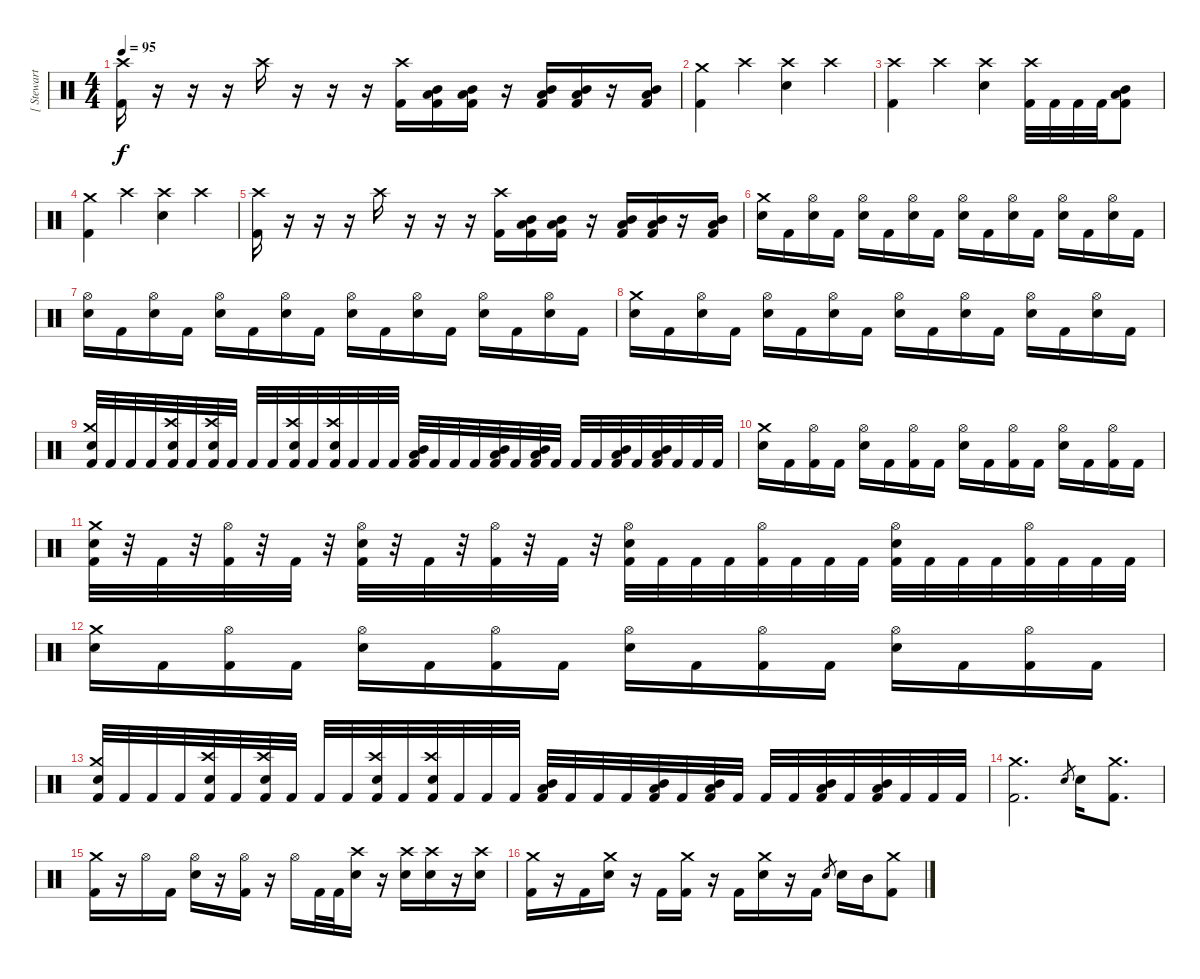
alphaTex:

\track ("[ Stewart ] " "[ Stewart ") {instrument percussion}
\staff {score}
\articulation defaults
\ts (4 4)
\tempo 95
\clef neutral
\ks c
("Kick (hit) 2" "Crash high (hit)").16{dy f} r.16 r.16 r.16 "Crash high (hit)".16 r.16 r.16 r.16 ("Kick (hit) 2" "Crash high (hit)").16 ("Kick (hit) 2" "Mid Tom (hit)" "Low Tom (hit)").16 ("Kick (hit) 2" "Mid Tom (hit)" "Low Tom (hit)").16 r.16 ("Kick (hit) 2" "Mid Tom (hit)" "Low Tom (hit)").16 ("Kick (hit) 2" "Mid Tom (hit)" "Low Tom (hit)").16 r.16 ("Kick (hit) 2" "Mid Tom (hit)" "Low Tom (hit)").16 |
("Kick (hit) 2" "Crash medium (hit)").4 "Crash high (hit)".4 ("Electric Snare (hit)" "Crash high (hit)").4 "Crash high (hit)".4 |
("Kick (hit) 2" "Crash high (hit)").4 "Crash high (hit)".4 ("Electric Snare (hit)" "Crash high (hit)").4 ("Kick (hit) 2" "Crash high (hit)").32 "Kick (hit) 2".32 "Kick (hit) 2".32 "Kick (hit) 2".32 ("Low Tom (hit)" "Mid Tom (hit)" "Kick (hit) 2").8 |
("Kick (hit) 2" "Crash medium (hit)").4 "Crash high (hit)".4 ("Electric Snare (hit)" "Crash high (hit)").4 "Crash high (hit)".4 |
("Kick (hit) 2" "Crash high (hit)").16 r.16 r.16 r.16 "Crash high (hit)".16 r.16 r.16 r.16 ("Kick (hit) 2" "Crash high (hit)").16 ("Kick (hit) 2" "Mid Tom (hit)" "Low Tom (hit)").16 ("Kick (hit) 2" "Mid Tom (hit)" "Low Tom (hit)").16 r.16 ("Kick (hit) 2" "Mid Tom (hit)" "Low Tom (hit)").16 ("Kick (hit) 2" "Mid Tom (hit)" "Low Tom (hit)").16 r.16 ("Kick (hit) 2" "Mid Tom (hit)" "Low Tom (hit)").16 |
("Electric Snare (hit)" "Crash medium (hit)").16 "Kick (hit) 2".16 ("Electric Snare (hit)" "Hi-Hat (open)").16 "Kick (hit) 2".16 ("Electric Snare (hit)" "Hi-Hat (open)").16 "Kick (hit) 2".16 ("Electric Snare (hit)" "Hi-Hat (open)").16 "Kick (hit) 2".16 ("Electric Snare (hit)" "Hi-Hat (open)").16 "Kick (hit) 2".16 ("Electric Snare (hit)" "Hi-Hat (open)").16 "Kick (hit) 2".16 ("Electric Snare (hit)" "Hi-Hat (open)").16 "Kick (hit) 2".16 ("Electric Snare (hit)" "Hi-Hat (open)").16 "Kick (hit) 2".16 |
("Electric Snare (hit)" "Hi-Hat (open)").16 "Kick (hit) 2".16 ("Electric Snare (hit)" "Hi-Hat (open)").16 "Kick (hit) 2".16 ("Electric Snare (hit)" "Hi-Hat (open)").16 "Kick (hit) 2".16 ("Electric Snare (hit)" "Hi-Hat (open)").16 "Kick (hit) 2".16 ("Electric Snare (hit)" "Hi-Hat (open)").16 "Kick (hit) 2".16 ("Electric Snare (hit)" "Hi-Hat (open)").16 "Kick (hit) 2".16 ("Electric Snare (hit)" "Hi-Hat (open)").16 "Kick (hit) 2".16 ("Electric Snare (hit)" "Hi-Hat (open)").16 "Kick (hit) 2".16 |
("Electric Snare (hit)" "Crash medium (hit)").16 "Kick (hit) 2".16 ("Electric Snare (hit)" "Hi-Hat (open)").16 "Kick (hit) 2".16 ("Electric Snare (hit)" "Hi-Hat (open)").16 "Kick (hit) 2".16 ("Electric Snare (hit)" "Hi-Hat (open)").16 "Kick (hit) 2".16 ("Electric Snare (hit)" "Hi-Hat (open)").16 "Kick (hit) 2".16 ("Electric Snare (hit)" "Hi-Hat (open)").16 "Kick (hit) 2".16 ("Electric Snare (hit)" "Hi-Hat (open)").16 "Kick (hit) 2".16 ("Electric Snare (hit)" "Hi-Hat (open)").16 "Kick (hit) 2".16 |
("Kick (hit) 2" "Electric Snare (hit)" "Crash medium (hit)").32 "Kick (hit) 2".32 "Kick (hit) 2".32 "Kick (hit) 2".32 ("Kick (hit) 2" "Electric Snare (hit)" "Crash high (hit)").32 "Kick (hit) 2".32 ("Kick (hit) 2" "Electric Snare (hit)" "Crash high (hit)").32 "Kick (hit) 2".32 "Kick (hit) 2".32 "Kick (hit) 2".32 ("Kick (hit) 2" "Electric Snare (hit)" "Crash high (hit)").32 "Kick (hit) 2".32 ("Kick (hit) 2" "Electric Snare (hit)" "Crash high (hit)").32 "Kick (hit) 2".32 "Kick (hit) 2".32 "Kick (hit) 2".32 ("Kick (hit) 2" "Mid Tom (hit)" "Low Tom (hit)").32 "Kick (hit) 2".32 "Kick (hit) 2".32 "Kick (hit) 2".32 ("Kick (hit) 2" "Mid Tom (hit)" "Low Tom (hit)").32 "Kick (hit) 2".32 ("Kick (hit) 2" "Mid Tom (hit)" "Low Tom (hit)").32 "Kick (hit) 2".32 "Kick (hit) 2".32 "Kick (hit) 2".32 ("Kick (hit) 2" "Low Tom (hit)" "Mid Tom (hit)").32 "Kick (hit) 2".32 ("Kick (hit) 2" "Low Tom (hit)" "Mid Tom (hit)").32 "Kick (hit) 2".32 "Kick (hit) 2".32 "Kick (hit) 2".32 |
("Electric Snare (hit)" "Crash medium (hit)").16 "Kick (hit) 2".16 ("Kick (hit) 2" "Hi-Hat (open)").16 "Kick (hit) 2".16 ("Electric Snare (hit)" "Hi-Hat (open)").16 "Kick (hit) 2".16 ("Kick (hit) 2" "Hi-Hat (open)").16 "Kick (hit) 2".16 ("Electric Snare (hit)" "Hi-Hat (open)").16 "Kick (hit) 2".16 ("Kick (hit) 2" "Hi-Hat (open)").16 "Kick (hit) 2".16 ("Electric Snare (hit)" "Hi-Hat (open)").16 "Kick (hit) 2".16 ("Kick (hit) 2" "Hi-Hat (open)").16 "Kick (hit) 2".16 |
("Kick (hit) 2" "Electric Snare (hit)" "Crash medium (hit)").32 r.32 "Kick (hit) 2".32 r.32 ("Kick (hit) 2" "Hi-Hat (open)").32 r.32 "Kick (hit) 2".32 r.32 ("Kick (hit) 2" "Electric Snare (hit)" "Hi-Hat (open)").32 r.32 "Kick (hit) 2".32 r.32 ("Kick (hit) 2" "Hi-Hat (open)").32 r.32 "Kick (hit) 2".32 r.32 ("Kick (hit) 2" "Electric Snare (hit)" "Hi-Hat (open)").32 "Kick (hit) 2".32 "Kick (hit) 2".32 "Kick (hit) 2".32 ("Kick (hit) 2" "Hi-Hat (open)").32 "Kick (hit) 2".32 "Kick (hit) 2".32 "Kick (hit) 2".32 ("Kick (hit) 2" "Electric Snare (hit)" "Hi-Hat (open)").32 "Kick (hit) 2".32 "Kick (hit) 2".32 "Kick (hit) 2".32 ("Kick (hit) 2" "Hi-Hat (open)").32 "Kick (hit) 2".32 "Kick (hit) 2".32 "Kick (hit) 2".32 |
("Electric Snare (hit)" "Crash medium (hit)").16 "Kick (hit) 2".16 ("Kick (hit) 2" "Hi-Hat (open)").16 "Kick (hit) 2".16 ("Electric Snare (hit)" "Hi-Hat (open)").16 "Kick (hit) 2".16 ("Kick (hit) 2" "Hi-Hat (open)").16 "Kick (hit) 2".16 ("Electric Snare (hit)" "Hi-Hat (open)").16 "Kick (hit) 2".16 ("Kick (hit) 2" "Hi-Hat (open)").16 "Kick (hit) 2".16 ("Electric Snare (hit)" "Hi-Hat (open)").16 "Kick (hit) 2".16 ("Kick (hit) 2" "Hi-Hat (open)").16 "Kick (hit) 2".16 |
("Kick (hit) 2" "Electric Snare (hit)" "Crash medium (hit)").32 "Kick (hit) 2".32 "Kick (hit) 2".32 "Kick (hit) 2".32 ("Kick (hit) 2" "Electric Snare (hit)" "Crash high (hit)").32 "Kick (hit) 2".32 ("Kick (hit) 2" "Electric Snare (hit)" "Crash high (hit)").32 "Kick (hit) 2".32 "Kick (hit) 2".32 "Kick (hit) 2".32 ("Kick (hit) 2" "Electric Snare (hit)" "Crash high (hit)").32 "Kick (hit) 2".32 ("Kick (hit) 2" "Electric Snare (hit)" "Crash high (hit)").32 "Kick (hit) 2".32 "Kick (hit) 2".32 "Kick (hit) 2".32 ("Kick (hit) 2" "Mid Tom (hit)" "Low Tom (hit)").32 "Kick (hit) 2".32 "Kick (hit) 2".32 "Kick (hit) 2".32 ("Kick (hit) 2" "Mid Tom (hit)" "Low Tom (hit)").32 "Kick (hit) 2".32 ("Kick (hit) 2" "Mid Tom (hit)" "Low Tom (hit)").32 "Kick (hit) 2".32 "Kick (hit) 2".32 "Kick (hit) 2".32 ("Kick (hit) 2" "Low Tom (hit)" "Mid Tom (hit)").32 "Kick (hit) 2".32 ("Kick (hit) 2" "Low Tom (hit)" "Mid Tom (hit)").32 "Kick (hit) 2".32 "Kick (hit) 2".32 "Kick (hit) 2".32 |
("Crash medium (hit)" "Kick (hit) 2").2{d} "Electric Snare (hit)".8{gr} "Electric Snare (hit)".16 ("Kick (hit) 2" "Crash medium (hit)").8{d} |
("Kick (hit) 2" "Crash medium (hit)").16 r.16 "Hi-Hat (open)".16 "Kick (hit) 2".16 ("Electric Snare (hit)" "Hi-Hat (open)").16 r.16 ("Kick (hit) 2" "Hi-Hat (open)").16 r.16 "Hi-Hat (open)".16 "Kick (hit) 2".32 "Kick (hit) 2".32 ("Electric Snare (hit)" "Crash high (hit)").16 r.16 ("Electric Snare (hit)" "Crash high (hit)").16 ("Electric Snare (hit)" "Crash high (hit)").16 r.16 ("Electric Snare (hit)" "Crash high (hit)").16 |
("Kick (hit) 2" "Crash medium (hit)").16 r.16 "Kick (hit) 2".16 ("Electric Snare (hit)" "Crash medium (hit)").16 r.16 "Kick (hit) 2".16 ("Kick (hit) 2" "Crash medium (hit)").16 r.16 "Kick (hit) 2".16 ("Electric Snare (hit)" "Crash medium (hit)").16 r.16 "Kick (hit) 2".16 "Electric Snare (hit)".8{gr} "Electric Snare (hit)".16 "Mid Tom (hit)".16 ("Kick (hit) 2" "Crash medium (hit)").8
